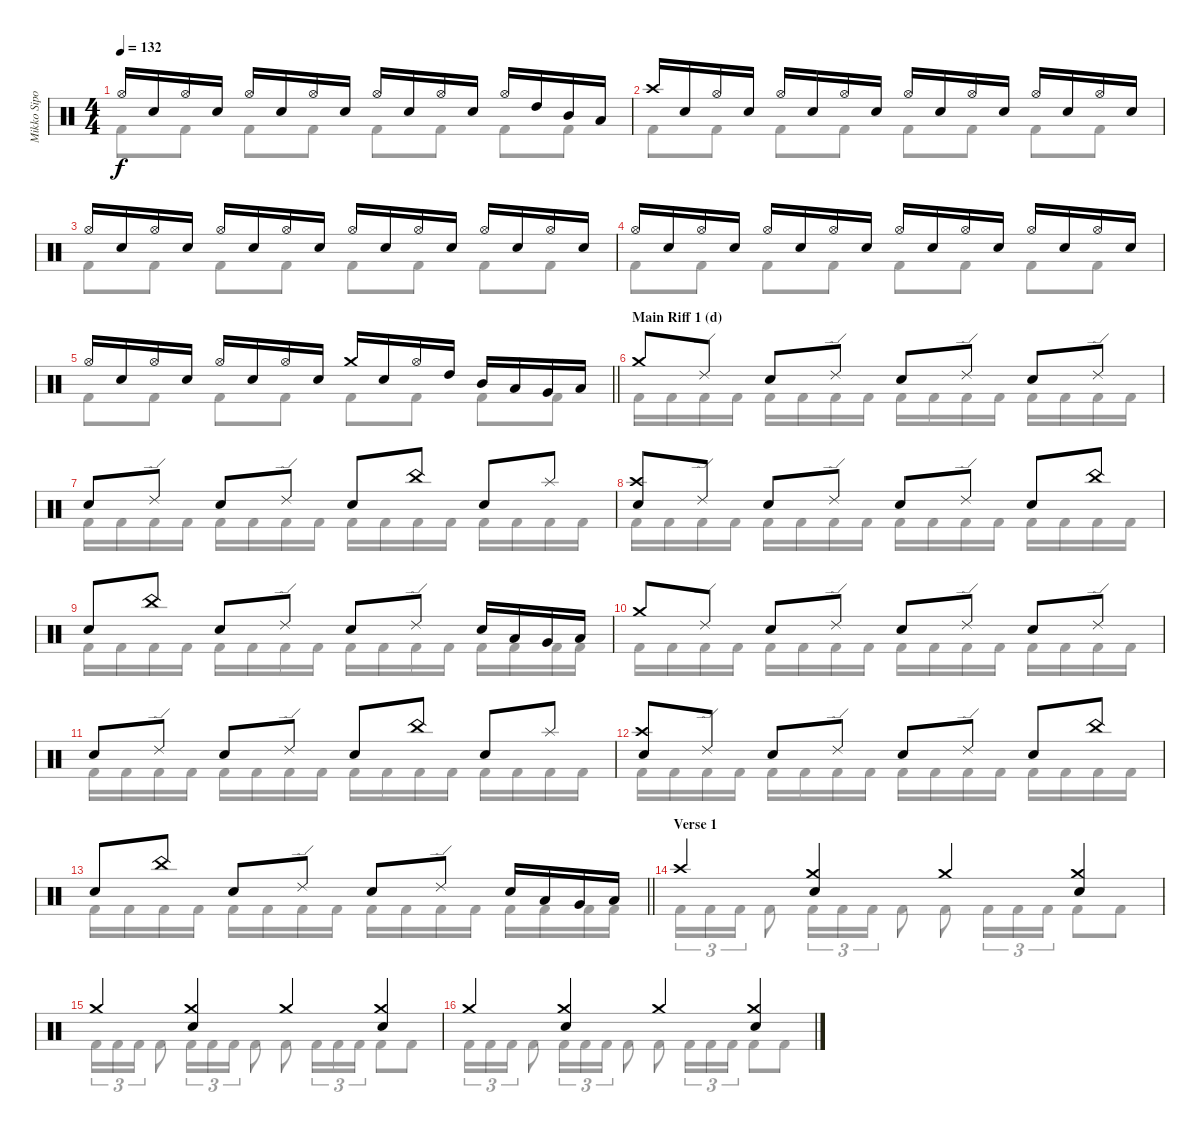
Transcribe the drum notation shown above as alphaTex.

\track ("Mikko Sipola (drums)" "Mikko Sipo") {instrument percussion}
\staff {score}
\articulation defaults
\voice
\ts (4 4)
\tempo 132
\clef neutral
\ks c "Hi-Hat (open)".16{dy f} "Electric Snare (hit)".16 "Hi-Hat (open)".16 "Electric Snare (hit)".16 "Hi-Hat (open)".16 "Electric Snare (hit)".16 "Hi-Hat (open)".16 "Electric Snare (hit)".16 "Hi-Hat (open)".16 "Electric Snare (hit)".16 "Hi-Hat (open)".16 "Electric Snare (hit)".16 "Hi-Hat (open)".16 "High Tom (hit)".16 "Mid Tom (hit)".16 "Low Tom (hit)".16
|
"Crash high (hit)".16 "Electric Snare (hit)".16 "Hi-Hat (open)".16 "Electric Snare (hit)".16 "Hi-Hat (open)".16 "Electric Snare (hit)".16 "Hi-Hat (open)".16 "Electric Snare (hit)".16 "Hi-Hat (open)".16 "Electric Snare (hit)".16 "Hi-Hat (open)".16 "Electric Snare (hit)".16 "Hi-Hat (open)".16 "Electric Snare (hit)".16 "Hi-Hat (open)".16 "Electric Snare (hit)".16 |
"Hi-Hat (open)".16 "Electric Snare (hit)".16 "Hi-Hat (open)".16 "Electric Snare (hit)".16 "Hi-Hat (open)".16 "Electric Snare (hit)".16 "Hi-Hat (open)".16 "Electric Snare (hit)".16 "Hi-Hat (open)".16 "Electric Snare (hit)".16 "Hi-Hat (open)".16 "Electric Snare (hit)".16 "Hi-Hat (open)".16 "Electric Snare (hit)".16 "Hi-Hat (open)".16 "Electric Snare (hit)".16 |
"Hi-Hat (open)".16 "Electric Snare (hit)".16 "Hi-Hat (open)".16 "Electric Snare (hit)".16 "Hi-Hat (open)".16 "Electric Snare (hit)".16 "Hi-Hat (open)".16 "Electric Snare (hit)".16 "Hi-Hat (open)".16 "Electric Snare (hit)".16 "Hi-Hat (open)".16 "Electric Snare (hit)".16 "Hi-Hat (open)".16 "Electric Snare (hit)".16 "Hi-Hat (open)".16 "Electric Snare (hit)".16 |
\barLineRight lightlight "Hi-Hat (open)".16 "Electric Snare (hit)".16 "Hi-Hat (open)".16 "Electric Snare (hit)".16 "Hi-Hat (open)".16 "Electric Snare (hit)".16 "Hi-Hat (open)".16 "Electric Snare (hit)".16 "Crash medium (hit)".16 "Electric Snare (hit)".16 "Hi-Hat (open)".16 "High Tom (hit)".16 "Mid Tom (hit)".16 "Low Tom (hit)".16 "Very Low Tom (hit)".16 "Low Floor Tom (hit)".16
|
\section ("" "Main Riff 1 (d)")
"Crash medium (hit)".8 "Ride (edge) 2".8 "Electric Snare (hit)".8 "Ride (edge) 2".8 "Electric Snare (hit)".8 "Ride (edge) 2".8 "Electric Snare (hit)".8 "Ride (edge) 2".8 |
"Electric Snare (hit)".8 "Ride (edge) 2".8 "Electric Snare (hit)".8 "Ride (edge) 2".8 "Electric Snare (hit)".8 "China (hit)".8 "Electric Snare (hit)".8 "Splash (hit)".8 |
("Crash high (hit)" "Electric Snare (hit)").8 "Ride (edge) 2".8 "Electric Snare (hit)".8 "Ride (edge) 2".8 "Electric Snare (hit)".8 "Ride (edge) 2".8 "Electric Snare (hit)".8 "China (hit)".8 |
"Electric Snare (hit)".8 "China (hit)".8 "Electric Snare (hit)".8 "Ride (edge) 2".8 "Electric Snare (hit)".8 "Ride (edge) 2".8 "Electric Snare (hit)".16 "Low Tom (hit)".16 "Very Low Tom (hit)".16 "Low Floor Tom (hit)".16 |
"Crash medium (hit)".8 "Ride (edge) 2".8 "Electric Snare (hit)".8 "Ride (edge) 2".8 "Electric Snare (hit)".8 "Ride (edge) 2".8 "Electric Snare (hit)".8 "Ride (edge) 2".8 |
"Electric Snare (hit)".8 "Ride (edge) 2".8 "Electric Snare (hit)".8 "Ride (edge) 2".8 "Electric Snare (hit)".8 "China (hit)".8 "Electric Snare (hit)".8 "Splash (hit)".8 |
("Crash high (hit)" "Electric Snare (hit)").8 "Ride (edge) 2".8 "Electric Snare (hit)".8 "Ride (edge) 2".8 "Electric Snare (hit)".8 "Ride (edge) 2".8 "Electric Snare (hit)".8 "China (hit)".8 |
\barLineRight lightlight "Electric Snare (hit)".8 "China (hit)".8 "Electric Snare (hit)".8 "Ride (edge) 2".8 "Electric Snare (hit)".8 "Ride (edge) 2".8 "Electric Snare (hit)".16 "Low Tom (hit)".16 "Very Low Tom (hit)".16 "Low Floor Tom (hit)".16
|
\section ("" "Verse 1")
"Crash high (hit)".4 ("Crash medium (hit)" "Electric Snare (hit)").4 "Crash medium (hit)".4 ("Crash medium (hit)" "Electric Snare (hit)").4 |
"Crash medium (hit)".4 ("Crash medium (hit)" "Electric Snare (hit)").4 "Crash medium (hit)".4 ("Crash medium (hit)" "Electric Snare (hit)").4 |
"Crash medium (hit)".4 ("Crash medium (hit)" "Electric Snare (hit)").4 "Crash medium (hit)".4 ("Crash medium (hit)" "Electric Snare (hit)").4
\voice
\clef neutral
\ottava regular
\simile none
\ks c "Kick (hit) 2".8{dy f} "Kick (hit) 2".8 "Kick (hit) 2".8 "Kick (hit) 2".8 "Kick (hit) 2".8 "Kick (hit) 2".8 "Kick (hit) 2".8 "Kick (hit) 2".8
|
"Kick (hit) 2".8 "Kick (hit) 2".8 "Kick (hit) 2".8 "Kick (hit) 2".8 "Kick (hit) 2".8 "Kick (hit) 2".8 "Kick (hit) 2".8 "Kick (hit) 2".8 |
"Kick (hit) 2".8 "Kick (hit) 2".8 "Kick (hit) 2".8 "Kick (hit) 2".8 "Kick (hit) 2".8 "Kick (hit) 2".8 "Kick (hit) 2".8 "Kick (hit) 2".8 |
"Kick (hit) 2".8 "Kick (hit) 2".8 "Kick (hit) 2".8 "Kick (hit) 2".8 "Kick (hit) 2".8 "Kick (hit) 2".8 "Kick (hit) 2".8 "Kick (hit) 2".8 |
\barLineRight lightlight "Kick (hit) 2".8 "Kick (hit) 2".8 "Kick (hit) 2".8 "Kick (hit) 2".8 "Kick (hit) 2".8 "Kick (hit) 2".8 "Kick (hit) 2".8 "Kick (hit) 2".8
|
"Kick (hit) 2".16 "Kick (hit) 2".16 "Kick (hit) 2".16 "Kick (hit) 2".16 "Kick (hit) 2".16 "Kick (hit) 2".16 "Kick (hit) 2".16 "Kick (hit) 2".16 "Kick (hit) 2".16 "Kick (hit) 2".16 "Kick (hit) 2".16 "Kick (hit) 2".16 "Kick (hit) 2".16 "Kick (hit) 2".16 "Kick (hit) 2".16 "Kick (hit) 2".16 |
"Kick (hit) 2".16 "Kick (hit) 2".16 "Kick (hit) 2".16 "Kick (hit) 2".16 "Kick (hit) 2".16 "Kick (hit) 2".16 "Kick (hit) 2".16 "Kick (hit) 2".16 "Kick (hit) 2".16 "Kick (hit) 2".16 "Kick (hit) 2".16 "Kick (hit) 2".16 "Kick (hit) 2".16 "Kick (hit) 2".16 "Kick (hit) 2".16 "Kick (hit) 2".16 |
"Kick (hit) 2".16 "Kick (hit) 2".16 "Kick (hit) 2".16 "Kick (hit) 2".16 "Kick (hit) 2".16 "Kick (hit) 2".16 "Kick (hit) 2".16 "Kick (hit) 2".16 "Kick (hit) 2".16 "Kick (hit) 2".16 "Kick (hit) 2".16 "Kick (hit) 2".16 "Kick (hit) 2".16 "Kick (hit) 2".16 "Kick (hit) 2".16 "Kick (hit) 2".16 |
"Kick (hit) 2".16 "Kick (hit) 2".16 "Kick (hit) 2".16 "Kick (hit) 2".16 "Kick (hit) 2".16 "Kick (hit) 2".16 "Kick (hit) 2".16 "Kick (hit) 2".16 "Kick (hit) 2".16 "Kick (hit) 2".16 "Kick (hit) 2".16 "Kick (hit) 2".16 "Kick (hit) 2".16 "Kick (hit) 2".16 "Kick (hit) 2".16 "Kick (hit) 2".16 |
"Kick (hit) 2".16 "Kick (hit) 2".16 "Kick (hit) 2".16 "Kick (hit) 2".16 "Kick (hit) 2".16 "Kick (hit) 2".16 "Kick (hit) 2".16 "Kick (hit) 2".16 "Kick (hit) 2".16 "Kick (hit) 2".16 "Kick (hit) 2".16 "Kick (hit) 2".16 "Kick (hit) 2".16 "Kick (hit) 2".16 "Kick (hit) 2".16 "Kick (hit) 2".16 |
"Kick (hit) 2".16 "Kick (hit) 2".16 "Kick (hit) 2".16 "Kick (hit) 2".16 "Kick (hit) 2".16 "Kick (hit) 2".16 "Kick (hit) 2".16 "Kick (hit) 2".16 "Kick (hit) 2".16 "Kick (hit) 2".16 "Kick (hit) 2".16 "Kick (hit) 2".16 "Kick (hit) 2".16 "Kick (hit) 2".16 "Kick (hit) 2".16 "Kick (hit) 2".16 |
"Kick (hit) 2".16 "Kick (hit) 2".16 "Kick (hit) 2".16 "Kick (hit) 2".16 "Kick (hit) 2".16 "Kick (hit) 2".16 "Kick (hit) 2".16 "Kick (hit) 2".16 "Kick (hit) 2".16 "Kick (hit) 2".16 "Kick (hit) 2".16 "Kick (hit) 2".16 "Kick (hit) 2".16 "Kick (hit) 2".16 "Kick (hit) 2".16 "Kick (hit) 2".16 |
\barLineRight lightlight "Kick (hit) 2".16 "Kick (hit) 2".16 "Kick (hit) 2".16 "Kick (hit) 2".16 "Kick (hit) 2".16 "Kick (hit) 2".16 "Kick (hit) 2".16 "Kick (hit) 2".16 "Kick (hit) 2".16 "Kick (hit) 2".16 "Kick (hit) 2".16 "Kick (hit) 2".16 "Kick (hit) 2".16 "Kick (hit) 2".16 "Kick (hit) 2".16 "Kick (hit) 2".16
|
"Kick (hit) 2".16{tu (3 2)} "Kick (hit) 2".16{tu (3 2)} "Kick (hit) 2".16{tu (3 2)} "Kick (hit) 2".8 "Kick (hit) 2".16{tu (3 2)} "Kick (hit) 2".16{tu (3 2)} "Kick (hit) 2".16{tu (3 2)} "Kick (hit) 2".8 "Kick (hit) 2".8 "Kick (hit) 2".16{tu (3 2)} "Kick (hit) 2".16{tu (3 2)} "Kick (hit) 2".16{tu (3 2)} "Kick (hit) 2".8 "Kick (hit) 2".8 |
"Kick (hit) 2".16{tu (3 2)} "Kick (hit) 2".16{tu (3 2)} "Kick (hit) 2".16{tu (3 2)} "Kick (hit) 2".8 "Kick (hit) 2".16{tu (3 2)} "Kick (hit) 2".16{tu (3 2)} "Kick (hit) 2".16{tu (3 2)} "Kick (hit) 2".8 "Kick (hit) 2".8 "Kick (hit) 2".16{tu (3 2)} "Kick (hit) 2".16{tu (3 2)} "Kick (hit) 2".16{tu (3 2)} "Kick (hit) 2".8 "Kick (hit) 2".8 |
"Kick (hit) 2".16{tu (3 2)} "Kick (hit) 2".16{tu (3 2)} "Kick (hit) 2".16{tu (3 2)} "Kick (hit) 2".8 "Kick (hit) 2".16{tu (3 2)} "Kick (hit) 2".16{tu (3 2)} "Kick (hit) 2".16{tu (3 2)} "Kick (hit) 2".8 "Kick (hit) 2".8 "Kick (hit) 2".16{tu (3 2)} "Kick (hit) 2".16{tu (3 2)} "Kick (hit) 2".16{tu (3 2)} "Kick (hit) 2".8 "Kick (hit) 2".8
